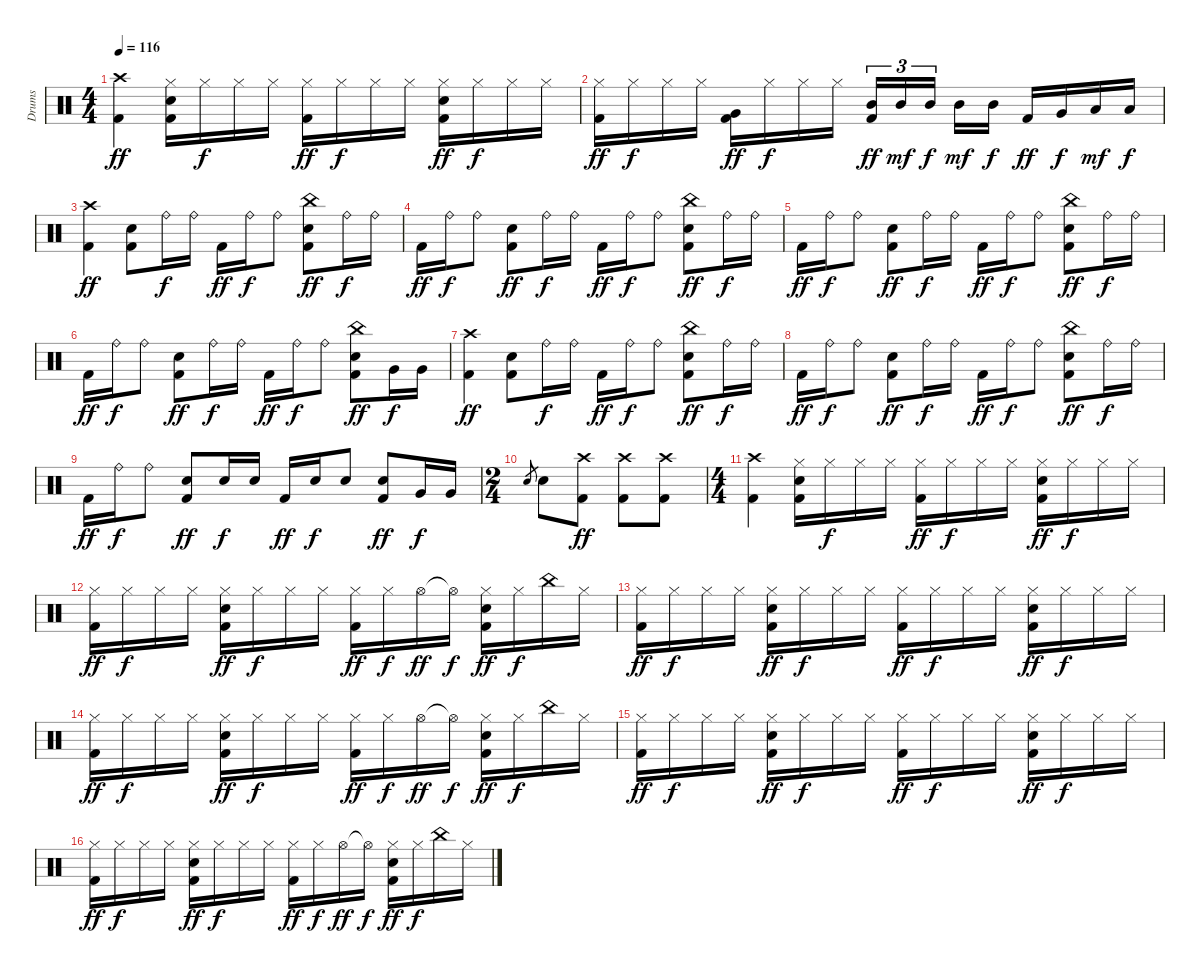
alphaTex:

\track ("Drums" "Drums") {instrument percussion}
\staff {score}
\articulation defaults
\ts (4 4)
\tempo 116
\clef neutral
\ks c
("Crash high (hit)" "Kick (hit) 2").4{dy ff} ("Hi-Hat (closed)" "Snare (hit) 2" "Kick (hit) 2").16 "Hi-Hat (closed)".16{dy f} "Hi-Hat (closed)".16 "Hi-Hat (closed)".16 ("Hi-Hat (closed)" "Kick (hit) 2").16{dy ff} "Hi-Hat (closed)".16{dy f} "Hi-Hat (closed)".16 "Hi-Hat (closed)".16 ("Hi-Hat (closed)" "Snare (hit) 2" "Kick (hit) 2").16{dy ff} "Hi-Hat (closed)".16{dy f} "Hi-Hat (closed)".16 "Hi-Hat (closed)".16 |
("Hi-Hat (closed)" "Kick (hit) 2").16{dy ff} "Hi-Hat (closed)".16{dy f} "Hi-Hat (closed)".16 "Hi-Hat (closed)".16 ("Very Low Tom (hit)" "Kick (hit) 2").16{dy ff} "Hi-Hat (closed)".16{dy f} "Hi-Hat (closed)".16 "Hi-Hat (closed)".16 ("Mid Tom (hit)" "Kick (hit) 2").16{tu (3 2) dy ff} "Mid Tom (hit)".16{tu (3 2) dy mf} "Mid Tom (hit)".16{tu (3 2) dy f} "Mid Tom (hit)".16{dy mf} "Mid Tom (hit)".16{dy f} "Kick (hit) 2".16{dy ff} "Very Low Tom (hit)".16{dy f} "Low Floor Tom (hit)".16{dy mf} "Low Floor Tom (hit)".16{dy f} |
("Crash high (hit)" "Kick (hit) 2").4{dy ff} ("Snare (hit) 2" "Kick (hit) 2").8 "Ride (bell)".16{dy f} "Ride (bell)".16 "Kick (hit) 2".16{dy ff} "Ride (bell)".16{dy f} "Ride (bell)".8 ("China (hit)" "Snare (hit) 2" "Kick (hit) 2").8{dy ff} "Ride (bell)".16{dy f} "Ride (bell)".16 |
"Kick (hit) 2".16{dy ff} "Ride (bell)".16{dy f} "Ride (bell)".8 ("Snare (hit) 2" "Kick (hit) 2").8{dy ff} "Ride (bell)".16{dy f} "Ride (bell)".16 "Kick (hit) 2".16{dy ff} "Ride (bell)".16{dy f} "Ride (bell)".8 ("China (hit)" "Snare (hit) 2" "Kick (hit) 2").8{dy ff} "Ride (bell)".16{dy f} "Ride (bell)".16 |
"Kick (hit) 2".16{dy ff} "Ride (bell)".16{dy f} "Ride (bell)".8 ("Snare (hit) 2" "Kick (hit) 2").8{dy ff} "Ride (bell)".16{dy f} "Ride (bell)".16 "Kick (hit) 2".16{dy ff} "Ride (bell)".16{dy f} "Ride (bell)".8 ("China (hit)" "Snare (hit) 2" "Kick (hit) 2").8{dy ff} "Ride (bell)".16{dy f} "Ride (bell)".16 |
"Kick (hit) 2".16{dy ff} "Ride (bell)".16{dy f} "Ride (bell)".8 ("Snare (hit) 2" "Kick (hit) 2").8{dy ff} "Ride (bell)".16{dy f} "Ride (bell)".16 "Kick (hit) 2".16{dy ff} "Ride (bell)".16{dy f} "Ride (bell)".8 ("China (hit)" "Snare (hit) 2" "Kick (hit) 2").8{dy ff} "Very Low Tom (hit)".16{dy f} "Very Low Tom (hit)".16 |
("Crash high (hit)" "Kick (hit) 2").4{dy ff} ("Snare (hit) 2" "Kick (hit) 2").8 "Ride (bell)".16{dy f} "Ride (bell)".16 "Kick (hit) 2".16{dy ff} "Ride (bell)".16{dy f} "Ride (bell)".8 ("China (hit)" "Snare (hit) 2" "Kick (hit) 2").8{dy ff} "Ride (bell)".16{dy f} "Ride (bell)".16 |
"Kick (hit) 2".16{dy ff} "Ride (bell)".16{dy f} "Ride (bell)".8 ("Snare (hit) 2" "Kick (hit) 2").8{dy ff} "Ride (bell)".16{dy f} "Ride (bell)".16 "Kick (hit) 2".16{dy ff} "Ride (bell)".16{dy f} "Ride (bell)".8 ("China (hit)" "Snare (hit) 2" "Kick (hit) 2").8{dy ff} "Ride (bell)".16{dy f} "Ride (bell)".16 |
"Kick (hit) 2".16{dy ff} "Ride (bell)".16{dy f} "Ride (bell)".8 ("Snare (hit) 2" "Kick (hit) 2").8{dy ff} "Snare (hit) 2".16{dy f} "Snare (hit) 2".16 "Kick (hit) 2".16{dy ff} "Snare (hit) 2".16{dy f} "Snare (hit) 2".8 ("Snare (hit) 2" "Kick (hit) 2").8{dy ff} "Very Low Tom (hit)".16{dy f} "Very Low Tom (hit)".16 |
\ts (2 4)
"Snare (hit) 2".8{gr} "Snare (hit) 2".8 ("Crash high (hit)" "Kick (hit) 2").8{dy ff} ("Crash high (hit)" "Kick (hit) 2").8 ("Crash high (hit)" "Kick (hit) 2").8 |
\ts (4 4)
("Crash high (hit)" "Kick (hit) 2").4 ("Hi-Hat (closed)" "Snare (hit) 2" "Kick (hit) 2").16 "Hi-Hat (closed)".16{dy f} "Hi-Hat (closed)".16 "Hi-Hat (closed)".16 ("Hi-Hat (closed)" "Kick (hit) 2").16{dy ff} "Hi-Hat (closed)".16{dy f} "Hi-Hat (closed)".16 "Hi-Hat (closed)".16 ("Hi-Hat (closed)" "Snare (hit) 2" "Kick (hit) 2").16{dy ff} "Hi-Hat (closed)".16{dy f} "Hi-Hat (closed)".16 "Hi-Hat (closed)".16 |
("Hi-Hat (closed)" "Kick (hit) 2").16{dy ff} "Hi-Hat (closed)".16{dy f} "Hi-Hat (closed)".16 "Hi-Hat (closed)".16 ("Hi-Hat (closed)" "Snare (hit) 2" "Kick (hit) 2").16{dy ff} "Hi-Hat (closed)".16{dy f} "Hi-Hat (closed)".16 "Hi-Hat (closed)".16 ("Hi-Hat (closed)" "Kick (hit) 2").16{dy ff} "Hi-Hat (closed)".16{dy f} "Hi-Hat (open)".16{dy ff} "Hi-Hat (open)"{t}.16{dy f} ("Hi-Hat (closed)" "Snare (hit) 2" "Kick (hit) 2").16{dy ff} "Hi-Hat (closed)".16{dy f} "China (hit)".16 "Hi-Hat (closed)".16 |
("Hi-Hat (closed)" "Kick (hit) 2").16{dy ff} "Hi-Hat (closed)".16{dy f} "Hi-Hat (closed)".16 "Hi-Hat (closed)".16 ("Hi-Hat (closed)" "Snare (hit) 2" "Kick (hit) 2").16{dy ff} "Hi-Hat (closed)".16{dy f} "Hi-Hat (closed)".16 "Hi-Hat (closed)".16 ("Hi-Hat (closed)" "Kick (hit) 2").16{dy ff} "Hi-Hat (closed)".16{dy f} "Hi-Hat (closed)".16 "Hi-Hat (closed)".16 ("Hi-Hat (closed)" "Snare (hit) 2" "Kick (hit) 2").16{dy ff} "Hi-Hat (closed)".16{dy f} "Hi-Hat (closed)".16 "Hi-Hat (closed)".16 |
("Hi-Hat (closed)" "Kick (hit) 2").16{dy ff} "Hi-Hat (closed)".16{dy f} "Hi-Hat (closed)".16 "Hi-Hat (closed)".16 ("Hi-Hat (closed)" "Snare (hit) 2" "Kick (hit) 2").16{dy ff} "Hi-Hat (closed)".16{dy f} "Hi-Hat (closed)".16 "Hi-Hat (closed)".16 ("Hi-Hat (closed)" "Kick (hit) 2").16{dy ff} "Hi-Hat (closed)".16{dy f} "Hi-Hat (open)".16{dy ff} "Hi-Hat (open)"{t}.16{dy f} ("Hi-Hat (closed)" "Snare (hit) 2" "Kick (hit) 2").16{dy ff} "Hi-Hat (closed)".16{dy f} "China (hit)".16 "Hi-Hat (closed)".16 |
("Hi-Hat (closed)" "Kick (hit) 2").16{dy ff} "Hi-Hat (closed)".16{dy f} "Hi-Hat (closed)".16 "Hi-Hat (closed)".16 ("Hi-Hat (closed)" "Snare (hit) 2" "Kick (hit) 2").16{dy ff} "Hi-Hat (closed)".16{dy f} "Hi-Hat (closed)".16 "Hi-Hat (closed)".16 ("Hi-Hat (closed)" "Kick (hit) 2").16{dy ff} "Hi-Hat (closed)".16{dy f} "Hi-Hat (closed)".16 "Hi-Hat (closed)".16 ("Hi-Hat (closed)" "Snare (hit) 2" "Kick (hit) 2").16{dy ff} "Hi-Hat (closed)".16{dy f} "Hi-Hat (closed)".16 "Hi-Hat (closed)".16 |
("Hi-Hat (closed)" "Kick (hit) 2").16{dy ff} "Hi-Hat (closed)".16{dy f} "Hi-Hat (closed)".16 "Hi-Hat (closed)".16 ("Hi-Hat (closed)" "Snare (hit) 2" "Kick (hit) 2").16{dy ff} "Hi-Hat (closed)".16{dy f} "Hi-Hat (closed)".16 "Hi-Hat (closed)".16 ("Hi-Hat (closed)" "Kick (hit) 2").16{dy ff} "Hi-Hat (closed)".16{dy f} "Hi-Hat (open)".16{dy ff} "Hi-Hat (open)"{t}.16{dy f} ("Hi-Hat (closed)" "Snare (hit) 2" "Kick (hit) 2").16{dy ff} "Hi-Hat (closed)".16{dy f} "China (hit)".16 "Hi-Hat (closed)".16
